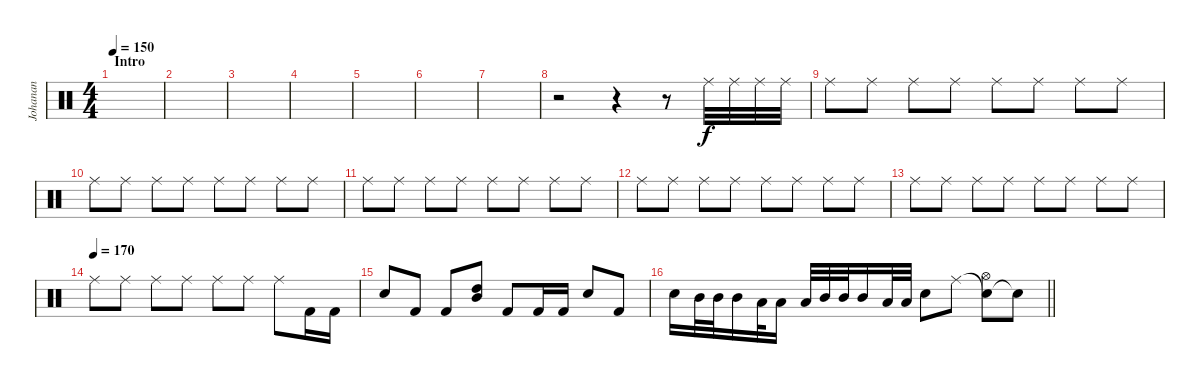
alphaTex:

\track ("Johanan" "Johanan") {instrument percussion}
\staff {score}
\articulation defaults
\ts (4 4)
\section ("" "Intro")
\tempo 150
\clef neutral
\ks c
|
|
|
|
|
|
|
r.2 r.4 r.8 "Ride (middle)".32 "Ride (middle)".32 "Ride (middle)".32 "Ride (middle)".32 |
"Ride (middle)".8 "Ride (middle)".8 "Ride (middle)".8 "Ride (middle)".8 "Ride (middle)".8 "Ride (middle)".8 "Ride (middle)".8 "Ride (middle)".8 |
"Ride (middle)".8 "Ride (middle)".8 "Ride (middle)".8 "Ride (middle)".8 "Ride (middle)".8 "Ride (middle)".8 "Ride (middle)".8 "Ride (middle)".8 |
"Ride (middle)".8 "Ride (middle)".8 "Ride (middle)".8 "Ride (middle)".8 "Ride (middle)".8 "Ride (middle)".8 "Ride (middle)".8 "Ride (middle)".8 |
"Ride (middle)".8 "Ride (middle)".8 "Ride (middle)".8 "Ride (middle)".8 "Ride (middle)".8 "Ride (middle)".8 "Ride (middle)".8 "Ride (middle)".8 |
"Ride (middle)".8 "Ride (middle)".8 "Ride (middle)".8 "Ride (middle)".8 "Ride (middle)".8 "Ride (middle)".8 "Ride (middle)".8 "Ride (middle)".8 |
\tempo (170)
"Ride (middle)".8 "Ride (middle)".8 "Ride (middle)".8 "Ride (middle)".8 "Ride (middle)".8 "Ride (middle)".8 "Ride (middle)".8 "Kick (hit) 2".16 "Kick (hit) 2".16 |
"Electric Snare (hit)".8 "Kick (hit) 2".8 "Kick (hit) 2".8 ("Mid Tom (hit)" "High Tom (hit)").8 "Kick (hit) 2".8 "Kick (hit) 2".16 "Kick (hit) 2".16 "Electric Snare (hit)".8 "Kick (hit) 2".8 |
\barLineRight lightlight "Electric Snare (hit)".16 "Mid Tom (hit)".32 "Mid Tom (hit)".32 "Mid Tom (hit)".16 "Low Tom (hit)".32 "Low Tom (hit)".16 "Low Tom (hit)".32 "Mid Tom (hit)".32 "Mid Tom (hit)".32 "Mid Tom (hit)".16 "Low Tom (hit)".32 "Low Tom (hit)".32 "Electric Snare (hit)".8 "Ride (middle)".8
("Snare (hit)"{t} "Hi-Hat (open)").8 "Snare (hit)"{t}.8
